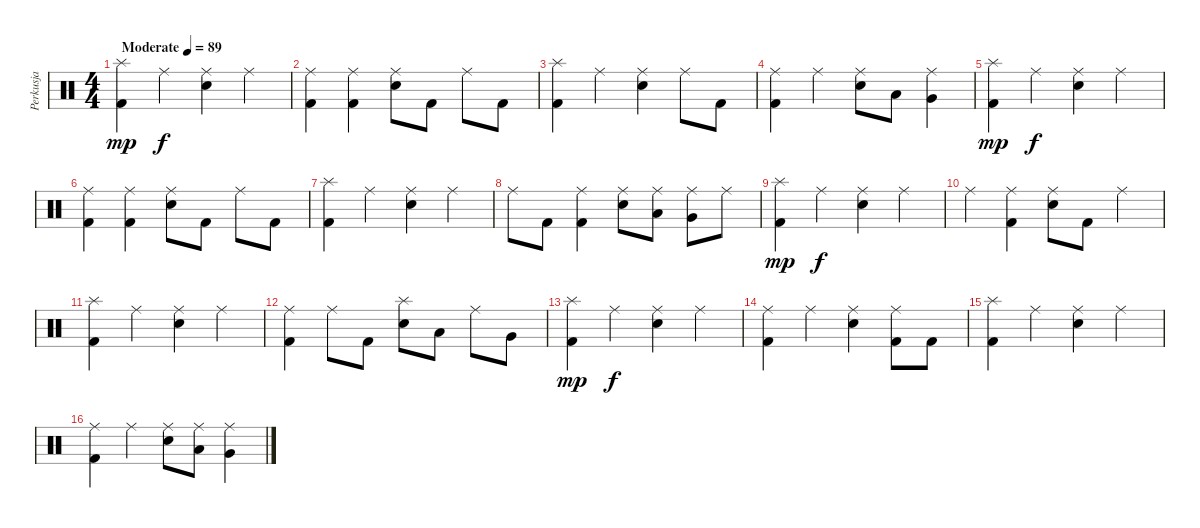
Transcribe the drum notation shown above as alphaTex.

\track ("Perkusja" "Perkusja") {instrument percussion}
\staff {score}
\articulation defaults
\ts (4 4)
\tempo (89 "Moderate")
\clef neutral
\ks c
("Splash (hit)" "Kick (hit) 2").4{dy mp} "Ride (middle)".4{dy f} ("Ride (middle)" "Electric Snare (hit)").4 "Ride (middle)".4 |
("Ride (middle)" "Kick (hit) 2").4 ("Ride (middle)" "Kick (hit) 2").4 ("Ride (middle)" "Electric Snare (hit)").8 "Kick (hit) 2".8 "Ride (middle)".8 "Kick (hit) 2".8 |
("Splash (hit)" "Kick (hit) 2").4 "Ride (middle)".4 ("Ride (middle)" "Electric Snare (hit)").4 "Ride (middle)".8 "Kick (hit) 2".8 |
("Ride (middle)" "Kick (hit) 2").4 "Ride (middle)".4 ("Ride (middle)" "Electric Snare (hit)").8 "Low Tom (hit)".8 ("Ride (middle)" "Very Low Tom (hit)").4 |
("Splash (hit)" "Kick (hit) 2").4{dy mp} "Ride (middle)".4{dy f} ("Ride (middle)" "Electric Snare (hit)").4 "Ride (middle)".4 |
("Ride (middle)" "Kick (hit) 2").4 ("Ride (middle)" "Kick (hit) 2").4 ("Ride (middle)" "Electric Snare (hit)").8 "Kick (hit) 2".8 "Ride (middle)".8 "Kick (hit) 2".8 |
("Splash (hit)" "Kick (hit) 2").4 "Ride (middle)".4 ("Ride (middle)" "Electric Snare (hit)").4 "Ride (middle)".4 |
"Ride (middle)".8 "Kick (hit) 2".8 ("Ride (middle)" "Kick (hit) 2").4 ("Ride (middle)" "Electric Snare (hit)").8 ("Ride (middle)" "Low Tom (hit)").8 ("Ride (middle)" "Very Low Tom (hit)").8 "Ride (middle)".8 |
("Splash (hit)" "Kick (hit) 2").4{dy mp} "Ride (middle)".4{dy f} ("Ride (middle)" "Electric Snare (hit)").4 "Ride (middle)".4 |
"Ride (middle)".4 ("Ride (middle)" "Kick (hit) 2").4 ("Ride (middle)" "Electric Snare (hit)").8 "Kick (hit) 2".8 "Ride (middle)".4 |
("Splash (hit)" "Kick (hit) 2").4 "Ride (middle)".4 ("Ride (middle)" "Electric Snare (hit)").4 "Ride (middle)".4 |
("Ride (middle)" "Kick (hit) 2").4 "Ride (middle)".8 "Kick (hit) 2".8 ("Splash (hit)" "Electric Snare (hit)").8 "Low Tom (hit)".8 "Ride (middle)".8 "Very Low Tom (hit)".8 |
("Splash (hit)" "Kick (hit) 2").4{dy mp} "Ride (middle)".4{dy f} ("Ride (middle)" "Electric Snare (hit)").4 "Ride (middle)".4 |
("Ride (middle)" "Kick (hit) 2").4 "Ride (middle)".4 ("Ride (middle)" "Electric Snare (hit)").4 ("Ride (middle)" "Kick (hit) 2").8 "Kick (hit) 2".8 |
("Splash (hit)" "Kick (hit) 2").4 "Ride (middle)".4 ("Ride (middle)" "Electric Snare (hit)").4 "Ride (middle)".4 |
("Ride (middle)" "Kick (hit) 2").4 "Ride (middle)".4 ("Ride (middle)" "Electric Snare (hit)").8 ("Ride (middle)" "Low Tom (hit)").8 ("Ride (middle)" "Very Low Tom (hit)").4
